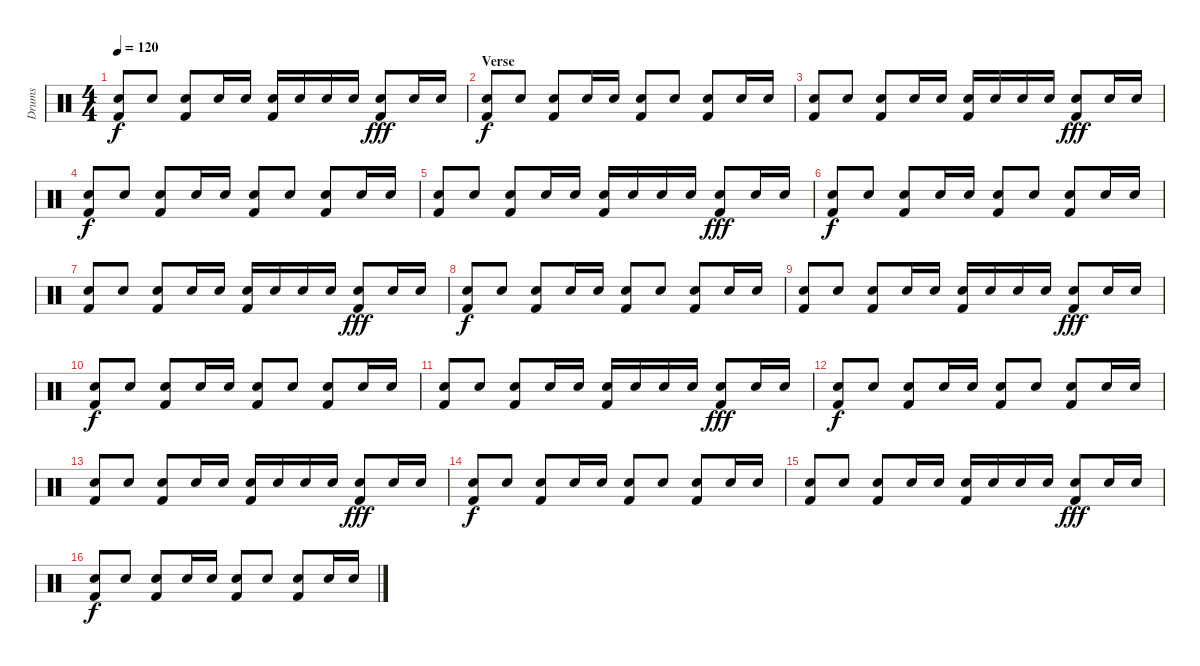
\track ("Drums" "Drums") {instrument percussion}
\staff {score}
\articulation defaults
\ts (4 4)
\tempo 120
\clef neutral
\ks c
("Electric Snare (hit)" "Kick (hit) 2").8{dy f} "Electric Snare (hit)".8 ("Electric Snare (hit)" "Kick (hit) 2").8 "Electric Snare (hit)".16 "Electric Snare (hit)".16 ("Electric Snare (hit)" "Kick (hit) 2").16 "Electric Snare (hit)".16 "Electric Snare (hit)".16 "Electric Snare (hit)".16 ("Electric Snare (hit)" "Kick (hit) 2").8{dy fff} "Electric Snare (hit)".16 "Electric Snare (hit)".16 |
\section ("" "Verse")
("Electric Snare (hit)" "Kick (hit) 2").8{dy f} "Electric Snare (hit)".8 ("Electric Snare (hit)" "Kick (hit) 2").8 "Electric Snare (hit)".16 "Electric Snare (hit)".16 ("Electric Snare (hit)" "Kick (hit) 2").8 "Electric Snare (hit)".8 ("Electric Snare (hit)" "Kick (hit) 2").8 "Electric Snare (hit)".16 "Electric Snare (hit)".16 |
("Electric Snare (hit)" "Kick (hit) 2").8 "Electric Snare (hit)".8 ("Electric Snare (hit)" "Kick (hit) 2").8 "Electric Snare (hit)".16 "Electric Snare (hit)".16 ("Electric Snare (hit)" "Kick (hit) 2").16 "Electric Snare (hit)".16 "Electric Snare (hit)".16 "Electric Snare (hit)".16 ("Electric Snare (hit)" "Kick (hit) 2").8{dy fff} "Electric Snare (hit)".16 "Electric Snare (hit)".16 |
("Electric Snare (hit)" "Kick (hit) 2").8{dy f} "Electric Snare (hit)".8 ("Electric Snare (hit)" "Kick (hit) 2").8 "Electric Snare (hit)".16 "Electric Snare (hit)".16 ("Electric Snare (hit)" "Kick (hit) 2").8 "Electric Snare (hit)".8 ("Electric Snare (hit)" "Kick (hit) 2").8 "Electric Snare (hit)".16 "Electric Snare (hit)".16 |
("Electric Snare (hit)" "Kick (hit) 2").8 "Electric Snare (hit)".8 ("Electric Snare (hit)" "Kick (hit) 2").8 "Electric Snare (hit)".16 "Electric Snare (hit)".16 ("Electric Snare (hit)" "Kick (hit) 2").16 "Electric Snare (hit)".16 "Electric Snare (hit)".16 "Electric Snare (hit)".16 ("Electric Snare (hit)" "Kick (hit) 2").8{dy fff} "Electric Snare (hit)".16 "Electric Snare (hit)".16 |
("Electric Snare (hit)" "Kick (hit) 2").8{dy f} "Electric Snare (hit)".8 ("Electric Snare (hit)" "Kick (hit) 2").8 "Electric Snare (hit)".16 "Electric Snare (hit)".16 ("Electric Snare (hit)" "Kick (hit) 2").8 "Electric Snare (hit)".8 ("Electric Snare (hit)" "Kick (hit) 2").8 "Electric Snare (hit)".16 "Electric Snare (hit)".16 |
("Electric Snare (hit)" "Kick (hit) 2").8 "Electric Snare (hit)".8 ("Electric Snare (hit)" "Kick (hit) 2").8 "Electric Snare (hit)".16 "Electric Snare (hit)".16 ("Electric Snare (hit)" "Kick (hit) 2").16 "Electric Snare (hit)".16 "Electric Snare (hit)".16 "Electric Snare (hit)".16 ("Electric Snare (hit)" "Kick (hit) 2").8{dy fff} "Electric Snare (hit)".16 "Electric Snare (hit)".16 |
("Electric Snare (hit)" "Kick (hit) 2").8{dy f} "Electric Snare (hit)".8 ("Electric Snare (hit)" "Kick (hit) 2").8 "Electric Snare (hit)".16 "Electric Snare (hit)".16 ("Electric Snare (hit)" "Kick (hit) 2").8 "Electric Snare (hit)".8 ("Electric Snare (hit)" "Kick (hit) 2").8 "Electric Snare (hit)".16 "Electric Snare (hit)".16 |
("Electric Snare (hit)" "Kick (hit) 2").8 "Electric Snare (hit)".8 ("Electric Snare (hit)" "Kick (hit) 2").8 "Electric Snare (hit)".16 "Electric Snare (hit)".16 ("Electric Snare (hit)" "Kick (hit) 2").16 "Electric Snare (hit)".16 "Electric Snare (hit)".16 "Electric Snare (hit)".16 ("Electric Snare (hit)" "Kick (hit) 2").8{dy fff} "Electric Snare (hit)".16 "Electric Snare (hit)".16 |
("Electric Snare (hit)" "Kick (hit) 2").8{dy f} "Electric Snare (hit)".8 ("Electric Snare (hit)" "Kick (hit) 2").8 "Electric Snare (hit)".16 "Electric Snare (hit)".16 ("Electric Snare (hit)" "Kick (hit) 2").8 "Electric Snare (hit)".8 ("Electric Snare (hit)" "Kick (hit) 2").8 "Electric Snare (hit)".16 "Electric Snare (hit)".16 |
("Electric Snare (hit)" "Kick (hit) 2").8 "Electric Snare (hit)".8 ("Electric Snare (hit)" "Kick (hit) 2").8 "Electric Snare (hit)".16 "Electric Snare (hit)".16 ("Electric Snare (hit)" "Kick (hit) 2").16 "Electric Snare (hit)".16 "Electric Snare (hit)".16 "Electric Snare (hit)".16 ("Electric Snare (hit)" "Kick (hit) 2").8{dy fff} "Electric Snare (hit)".16 "Electric Snare (hit)".16 |
("Electric Snare (hit)" "Kick (hit) 2").8{dy f} "Electric Snare (hit)".8 ("Electric Snare (hit)" "Kick (hit) 2").8 "Electric Snare (hit)".16 "Electric Snare (hit)".16 ("Electric Snare (hit)" "Kick (hit) 2").8 "Electric Snare (hit)".8 ("Electric Snare (hit)" "Kick (hit) 2").8 "Electric Snare (hit)".16 "Electric Snare (hit)".16 |
("Electric Snare (hit)" "Kick (hit) 2").8 "Electric Snare (hit)".8 ("Electric Snare (hit)" "Kick (hit) 2").8 "Electric Snare (hit)".16 "Electric Snare (hit)".16 ("Electric Snare (hit)" "Kick (hit) 2").16 "Electric Snare (hit)".16 "Electric Snare (hit)".16 "Electric Snare (hit)".16 ("Electric Snare (hit)" "Kick (hit) 2").8{dy fff} "Electric Snare (hit)".16 "Electric Snare (hit)".16 |
("Electric Snare (hit)" "Kick (hit) 2").8{dy f} "Electric Snare (hit)".8 ("Electric Snare (hit)" "Kick (hit) 2").8 "Electric Snare (hit)".16 "Electric Snare (hit)".16 ("Electric Snare (hit)" "Kick (hit) 2").8 "Electric Snare (hit)".8 ("Electric Snare (hit)" "Kick (hit) 2").8 "Electric Snare (hit)".16 "Electric Snare (hit)".16 |
("Electric Snare (hit)" "Kick (hit) 2").8 "Electric Snare (hit)".8 ("Electric Snare (hit)" "Kick (hit) 2").8 "Electric Snare (hit)".16 "Electric Snare (hit)".16 ("Electric Snare (hit)" "Kick (hit) 2").16 "Electric Snare (hit)".16 "Electric Snare (hit)".16 "Electric Snare (hit)".16 ("Electric Snare (hit)" "Kick (hit) 2").8{dy fff} "Electric Snare (hit)".16 "Electric Snare (hit)".16 |
("Electric Snare (hit)" "Kick (hit) 2").8{dy f} "Electric Snare (hit)".8 ("Electric Snare (hit)" "Kick (hit) 2").8 "Electric Snare (hit)".16 "Electric Snare (hit)".16 ("Electric Snare (hit)" "Kick (hit) 2").8 "Electric Snare (hit)".8 ("Electric Snare (hit)" "Kick (hit) 2").8 "Electric Snare (hit)".16 "Electric Snare (hit)".16
